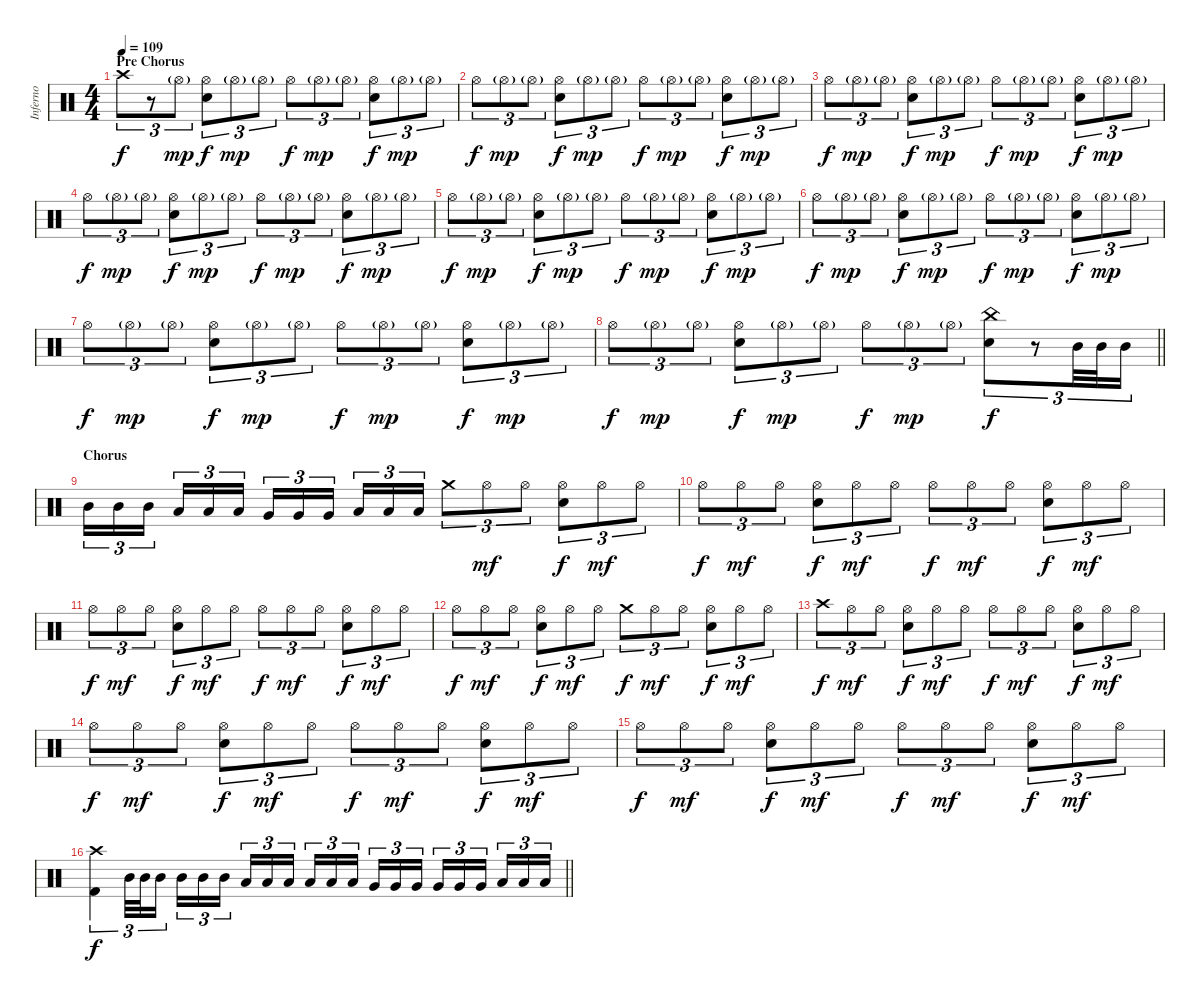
\track ("Inferno" "Inferno") {instrument percussion}
\staff {score}
\articulation defaults
\ts (4 4)
\section ("" "Pre Chorus")
\tempo 109
\clef neutral
\ks c "Crash high (hit)".8{tu (3 2) dy f}
r.8{tu (3 2)} "Hi-Hat (open)"{g}.8{tu (3 2) dy mp} ("Hi-Hat (open)" "Snare (hit) 2").8{tu (3 2) dy f} "Hi-Hat (open)"{g}.8{tu (3 2) dy mp} "Hi-Hat (open)"{g}.8{tu (3 2)} "Hi-Hat (open)".8{tu (3 2) dy f} "Hi-Hat (open)"{g}.8{tu (3 2) dy mp} "Hi-Hat (open)"{g}.8{tu (3 2)} ("Hi-Hat (open)" "Snare (hit) 2").8{tu (3 2) dy f} "Hi-Hat (open)"{g}.8{tu (3 2) dy mp} "Hi-Hat (open)"{g}.8{tu (3 2)} |
"Hi-Hat (open)".8{tu (3 2) dy f} "Hi-Hat (open)"{g}.8{tu (3 2) dy mp} "Hi-Hat (open)"{g}.8{tu (3 2)} ("Hi-Hat (open)" "Snare (hit) 2").8{tu (3 2) dy f} "Hi-Hat (open)"{g}.8{tu (3 2) dy mp} "Hi-Hat (open)"{g}.8{tu (3 2)} "Hi-Hat (open)".8{tu (3 2) dy f} "Hi-Hat (open)"{g}.8{tu (3 2) dy mp} "Hi-Hat (open)"{g}.8{tu (3 2)} ("Hi-Hat (open)" "Snare (hit) 2").8{tu (3 2) dy f} "Hi-Hat (open)"{g}.8{tu (3 2) dy mp} "Hi-Hat (open)"{g}.8{tu (3 2)} |
"Hi-Hat (open)".8{tu (3 2) dy f} "Hi-Hat (open)"{g}.8{tu (3 2) dy mp} "Hi-Hat (open)"{g}.8{tu (3 2)} ("Hi-Hat (open)" "Snare (hit) 2").8{tu (3 2) dy f} "Hi-Hat (open)"{g}.8{tu (3 2) dy mp} "Hi-Hat (open)"{g}.8{tu (3 2)} "Hi-Hat (open)".8{tu (3 2) dy f} "Hi-Hat (open)"{g}.8{tu (3 2) dy mp} "Hi-Hat (open)"{g}.8{tu (3 2)} ("Hi-Hat (open)" "Snare (hit) 2").8{tu (3 2) dy f} "Hi-Hat (open)"{g}.8{tu (3 2) dy mp} "Hi-Hat (open)"{g}.8{tu (3 2)} |
"Hi-Hat (open)".8{tu (3 2) dy f} "Hi-Hat (open)"{g}.8{tu (3 2) dy mp} "Hi-Hat (open)"{g}.8{tu (3 2)} ("Hi-Hat (open)" "Snare (hit) 2").8{tu (3 2) dy f} "Hi-Hat (open)"{g}.8{tu (3 2) dy mp} "Hi-Hat (open)"{g}.8{tu (3 2)} "Hi-Hat (open)".8{tu (3 2) dy f} "Hi-Hat (open)"{g}.8{tu (3 2) dy mp} "Hi-Hat (open)"{g}.8{tu (3 2)} ("Hi-Hat (open)" "Snare (hit) 2").8{tu (3 2) dy f} "Hi-Hat (open)"{g}.8{tu (3 2) dy mp} "Hi-Hat (open)"{g}.8{tu (3 2)} |
"Hi-Hat (open)".8{tu (3 2) dy f} "Hi-Hat (open)"{g}.8{tu (3 2) dy mp} "Hi-Hat (open)"{g}.8{tu (3 2)} ("Hi-Hat (open)" "Snare (hit) 2").8{tu (3 2) dy f} "Hi-Hat (open)"{g}.8{tu (3 2) dy mp} "Hi-Hat (open)"{g}.8{tu (3 2)} "Hi-Hat (open)".8{tu (3 2) dy f} "Hi-Hat (open)"{g}.8{tu (3 2) dy mp} "Hi-Hat (open)"{g}.8{tu (3 2)} ("Hi-Hat (open)" "Snare (hit) 2").8{tu (3 2) dy f} "Hi-Hat (open)"{g}.8{tu (3 2) dy mp} "Hi-Hat (open)"{g}.8{tu (3 2)} |
"Hi-Hat (open)".8{tu (3 2) dy f} "Hi-Hat (open)"{g}.8{tu (3 2) dy mp} "Hi-Hat (open)"{g}.8{tu (3 2)} ("Hi-Hat (open)" "Snare (hit) 2").8{tu (3 2) dy f} "Hi-Hat (open)"{g}.8{tu (3 2) dy mp} "Hi-Hat (open)"{g}.8{tu (3 2)} "Hi-Hat (open)".8{tu (3 2) dy f} "Hi-Hat (open)"{g}.8{tu (3 2) dy mp} "Hi-Hat (open)"{g}.8{tu (3 2)} ("Hi-Hat (open)" "Snare (hit) 2").8{tu (3 2) dy f} "Hi-Hat (open)"{g}.8{tu (3 2) dy mp} "Hi-Hat (open)"{g}.8{tu (3 2)} |
"Hi-Hat (open)".8{tu (3 2) dy f} "Hi-Hat (open)"{g}.8{tu (3 2) dy mp} "Hi-Hat (open)"{g}.8{tu (3 2)} ("Hi-Hat (open)" "Snare (hit) 2").8{tu (3 2) dy f} "Hi-Hat (open)"{g}.8{tu (3 2) dy mp} "Hi-Hat (open)"{g}.8{tu (3 2)} "Hi-Hat (open)".8{tu (3 2) dy f} "Hi-Hat (open)"{g}.8{tu (3 2) dy mp} "Hi-Hat (open)"{g}.8{tu (3 2)} ("Hi-Hat (open)" "Snare (hit) 2").8{tu (3 2) dy f} "Hi-Hat (open)"{g}.8{tu (3 2) dy mp} "Hi-Hat (open)"{g}.8{tu (3 2)} |
\barLineRight lightlight "Hi-Hat (open)".8{tu (3 2) dy f} "Hi-Hat (open)"{g}.8{tu (3 2) dy mp} "Hi-Hat (open)"{g}.8{tu (3 2)}
("Hi-Hat (open)" "Snare (hit) 2").8{tu (3 2) dy f} "Hi-Hat (open)"{g}.8{tu (3 2) dy mp} "Hi-Hat (open)"{g}.8{tu (3 2)} "Hi-Hat (open)".8{tu (3 2) dy f} "Hi-Hat (open)"{g}.8{tu (3 2) dy mp} "Hi-Hat (open)"{g}.8{tu (3 2)} ("China (hit)" "Snare (hit) 2").8{tu (3 2) dy f} r.8{tu (3 2)} "Mid Tom (hit)".32{tu (3 2)} "Mid Tom (hit)".32{tu (3 2)} "Mid Tom (hit)".16{tu (3 2)} |
\section ("" "Chorus")
"Mid Tom (hit)".16{tu (3 2)} "Mid Tom (hit)".16{tu (3 2)} "Mid Tom (hit)".16{tu (3 2) beam splitsecondary} "Low Tom (hit)".16{tu (3 2)} "Low Tom (hit)".16{tu (3 2)} "Low Tom (hit)".16{tu (3 2)} "Very Low Tom (hit)".16{tu (3 2)} "Very Low Tom (hit)".16{tu (3 2)} "Very Low Tom (hit)".16{tu (3 2) beam splitsecondary} "Low Floor Tom (hit)".16{tu (3 2)} "Low Floor Tom (hit)".16{tu (3 2)} "Low Floor Tom (hit)".16{tu (3 2)} "Crash medium (hit)".8{tu (3 2)} "Hi-Hat (open)".8{tu (3 2) dy mf} "Hi-Hat (open)".8{tu (3 2)} ("Hi-Hat (open)" "Snare (hit) 2").8{tu (3 2) dy f} "Hi-Hat (open)".8{tu (3 2) dy mf} "Hi-Hat (open)".8{tu (3 2)} |
"Hi-Hat (open)".8{tu (3 2) dy f} "Hi-Hat (open)".8{tu (3 2) dy mf} "Hi-Hat (open)".8{tu (3 2)} ("Hi-Hat (open)" "Snare (hit) 2").8{tu (3 2) dy f} "Hi-Hat (open)".8{tu (3 2) dy mf} "Hi-Hat (open)".8{tu (3 2)} "Hi-Hat (open)".8{tu (3 2) dy f} "Hi-Hat (open)".8{tu (3 2) dy mf} "Hi-Hat (open)".8{tu (3 2)} ("Hi-Hat (open)" "Snare (hit) 2").8{tu (3 2) dy f} "Hi-Hat (open)".8{tu (3 2) dy mf} "Hi-Hat (open)".8{tu (3 2)} |
"Hi-Hat (open)".8{tu (3 2) dy f} "Hi-Hat (open)".8{tu (3 2) dy mf} "Hi-Hat (open)".8{tu (3 2)} ("Hi-Hat (open)" "Snare (hit) 2").8{tu (3 2) dy f} "Hi-Hat (open)".8{tu (3 2) dy mf} "Hi-Hat (open)".8{tu (3 2)} "Hi-Hat (open)".8{tu (3 2) dy f} "Hi-Hat (open)".8{tu (3 2) dy mf} "Hi-Hat (open)".8{tu (3 2)} ("Hi-Hat (open)" "Snare (hit) 2").8{tu (3 2) dy f} "Hi-Hat (open)".8{tu (3 2) dy mf} "Hi-Hat (open)".8{tu (3 2)} |
"Hi-Hat (open)".8{tu (3 2) dy f} "Hi-Hat (open)".8{tu (3 2) dy mf} "Hi-Hat (open)".8{tu (3 2)} ("Hi-Hat (open)" "Snare (hit) 2").8{tu (3 2) dy f} "Hi-Hat (open)".8{tu (3 2) dy mf} "Hi-Hat (open)".8{tu (3 2)} "Crash medium (hit)".8{tu (3 2) dy f} "Hi-Hat (open)".8{tu (3 2) dy mf} "Hi-Hat (open)".8{tu (3 2)} ("Hi-Hat (open)" "Snare (hit) 2").8{tu (3 2) dy f} "Hi-Hat (open)".8{tu (3 2) dy mf} "Hi-Hat (open)".8{tu (3 2)} |
"Crash high (hit)".8{tu (3 2) dy f} "Hi-Hat (open)".8{tu (3 2) dy mf} "Hi-Hat (open)".8{tu (3 2)} ("Hi-Hat (open)" "Snare (hit) 2").8{tu (3 2) dy f} "Hi-Hat (open)".8{tu (3 2) dy mf} "Hi-Hat (open)".8{tu (3 2)} "Hi-Hat (open)".8{tu (3 2) dy f} "Hi-Hat (open)".8{tu (3 2) dy mf} "Hi-Hat (open)".8{tu (3 2)} ("Hi-Hat (open)" "Snare (hit) 2").8{tu (3 2) dy f} "Hi-Hat (open)".8{tu (3 2) dy mf} "Hi-Hat (open)".8{tu (3 2)} |
"Hi-Hat (open)".8{tu (3 2) dy f} "Hi-Hat (open)".8{tu (3 2) dy mf} "Hi-Hat (open)".8{tu (3 2)} ("Hi-Hat (open)" "Snare (hit) 2").8{tu (3 2) dy f} "Hi-Hat (open)".8{tu (3 2) dy mf} "Hi-Hat (open)".8{tu (3 2)} "Hi-Hat (open)".8{tu (3 2) dy f} "Hi-Hat (open)".8{tu (3 2) dy mf} "Hi-Hat (open)".8{tu (3 2)} ("Hi-Hat (open)" "Snare (hit) 2").8{tu (3 2) dy f} "Hi-Hat (open)".8{tu (3 2) dy mf} "Hi-Hat (open)".8{tu (3 2)} |
"Hi-Hat (open)".8{tu (3 2) dy f} "Hi-Hat (open)".8{tu (3 2) dy mf} "Hi-Hat (open)".8{tu (3 2)} ("Hi-Hat (open)" "Snare (hit) 2").8{tu (3 2) dy f} "Hi-Hat (open)".8{tu (3 2) dy mf} "Hi-Hat (open)".8{tu (3 2)} "Hi-Hat (open)".8{tu (3 2) dy f} "Hi-Hat (open)".8{tu (3 2) dy mf} "Hi-Hat (open)".8{tu (3 2)} ("Hi-Hat (open)" "Snare (hit) 2").8{tu (3 2) dy f} "Hi-Hat (open)".8{tu (3 2) dy mf} "Hi-Hat (open)".8{tu (3 2)} |
\barLineRight lightlight
("Crash high (hit)" "Kick (hit) 2").4{tu (3 2) dy f} "Mid Tom (hit)".32{tu (3 2)} "Mid Tom (hit)".32{tu (3 2)} "Mid Tom (hit)".16{tu (3 2)} "Mid Tom (hit)".16{tu (3 2)} "Mid Tom (hit)".16{tu (3 2)} "Mid Tom (hit)".16{tu (3 2) beam splitsecondary} "Low Tom (hit)".16{tu (3 2)} "Low Tom (hit)".16{tu (3 2)} "Low Tom (hit)".16{tu (3 2)} "Low Tom (hit)".16{tu (3 2)} "Low Tom (hit)".16{tu (3 2)} "Low Tom (hit)".16{tu (3 2) beam splitsecondary} "Very Low Tom (hit)".16{tu (3 2)} "Very Low Tom (hit)".16{tu (3 2)} "Very Low Tom (hit)".16{tu (3 2)} "Very Low Tom (hit)".16{tu (3 2)} "Very Low Tom (hit)".16{tu (3 2)} "Very Low Tom (hit)".16{tu (3 2) beam splitsecondary} "Low Floor Tom (hit)".16{tu (3 2)} "Low Floor Tom (hit)".16{tu (3 2)} "Low Floor Tom (hit)".16{tu (3 2)}
